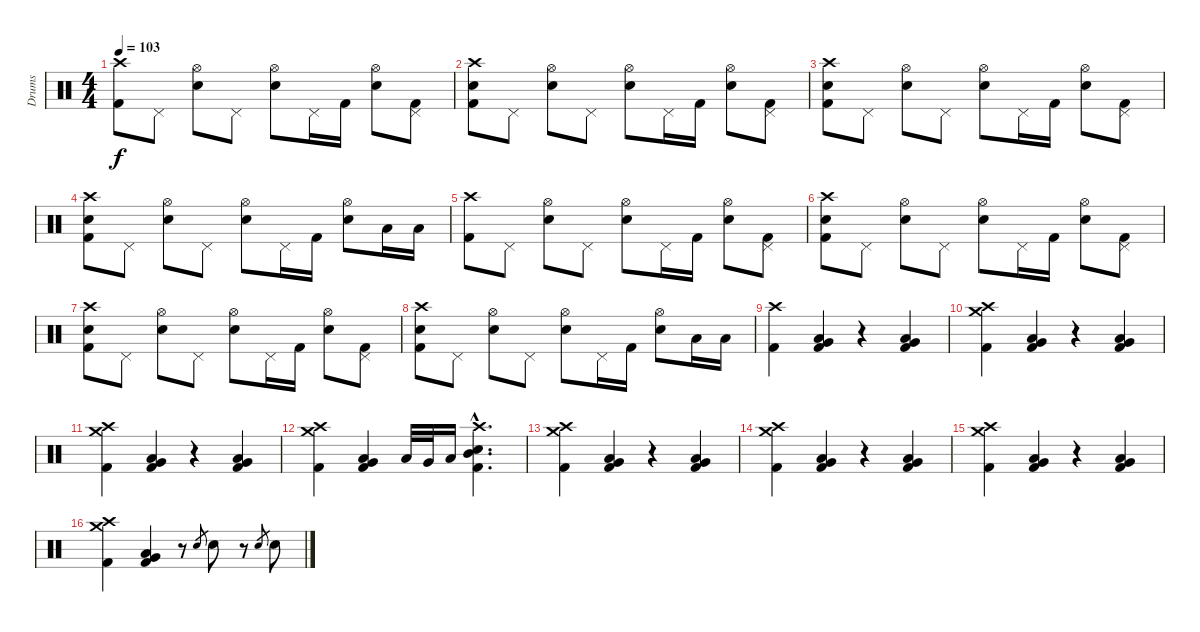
\track ("Drums" "Drums") {instrument percussion}
\staff {score}
\articulation defaults
\ts (4 4)
\tempo 103
\clef neutral
\ks c
("Crash high (hit)" "Kick (hit) 2").8{dy f} "Pedal Hi-Hat (hit)".8 ("Hi-Hat (open)" "Electric Snare (hit)").8 "Pedal Hi-Hat (hit)".8 ("Hi-Hat (open)" "Electric Snare (hit)").8 "Pedal Hi-Hat (hit)".16 "Kick (hit) 2".16 ("Hi-Hat (open)" "Electric Snare (hit)").8 ("Pedal Hi-Hat (hit)" "Kick (hit) 2").8 |
("Crash high (hit)" "Electric Snare (hit)" "Kick (hit) 2").8 "Pedal Hi-Hat (hit)".8 ("Hi-Hat (open)" "Electric Snare (hit)").8 "Pedal Hi-Hat (hit)".8 ("Hi-Hat (open)" "Electric Snare (hit)").8 "Pedal Hi-Hat (hit)".16 "Kick (hit) 2".16 ("Hi-Hat (open)" "Electric Snare (hit)").8 ("Pedal Hi-Hat (hit)" "Kick (hit) 2").8 |
("Crash high (hit)" "Electric Snare (hit)" "Kick (hit) 2").8 "Pedal Hi-Hat (hit)".8 ("Hi-Hat (open)" "Electric Snare (hit)").8 "Pedal Hi-Hat (hit)".8 ("Hi-Hat (open)" "Electric Snare (hit)").8 "Pedal Hi-Hat (hit)".16 "Kick (hit) 2".16 ("Hi-Hat (open)" "Electric Snare (hit)").8 ("Pedal Hi-Hat (hit)" "Kick (hit) 2").8 |
("Crash high (hit)" "Electric Snare (hit)" "Kick (hit) 2").8 "Pedal Hi-Hat (hit)".8 ("Hi-Hat (open)" "Electric Snare (hit)").8 "Pedal Hi-Hat (hit)".8 ("Hi-Hat (open)" "Electric Snare (hit)").8 "Pedal Hi-Hat (hit)".16 "Kick (hit) 2".16 ("Hi-Hat (open)" "Electric Snare (hit)").8 "Low Tom (hit)".16 "Low Tom (hit)".16 |
("Crash high (hit)" "Kick (hit) 2").8 "Pedal Hi-Hat (hit)".8 ("Hi-Hat (open)" "Electric Snare (hit)").8 "Pedal Hi-Hat (hit)".8 ("Hi-Hat (open)" "Electric Snare (hit)").8 "Pedal Hi-Hat (hit)".16 "Kick (hit) 2".16 ("Hi-Hat (open)" "Electric Snare (hit)").8 ("Pedal Hi-Hat (hit)" "Kick (hit) 2").8 |
("Crash high (hit)" "Electric Snare (hit)" "Kick (hit) 2").8 "Pedal Hi-Hat (hit)".8 ("Hi-Hat (open)" "Electric Snare (hit)").8 "Pedal Hi-Hat (hit)".8 ("Hi-Hat (open)" "Electric Snare (hit)").8 "Pedal Hi-Hat (hit)".16 "Kick (hit) 2".16 ("Hi-Hat (open)" "Electric Snare (hit)").8 ("Pedal Hi-Hat (hit)" "Kick (hit) 2").8 |
("Crash high (hit)" "Electric Snare (hit)" "Kick (hit) 2").8 "Pedal Hi-Hat (hit)".8 ("Hi-Hat (open)" "Electric Snare (hit)").8 "Pedal Hi-Hat (hit)".8 ("Hi-Hat (open)" "Electric Snare (hit)").8 "Pedal Hi-Hat (hit)".16 "Kick (hit) 2".16 ("Hi-Hat (open)" "Electric Snare (hit)").8 ("Pedal Hi-Hat (hit)" "Kick (hit) 2").8 |
("Crash high (hit)" "Electric Snare (hit)" "Kick (hit) 2").8 "Pedal Hi-Hat (hit)".8 ("Hi-Hat (open)" "Electric Snare (hit)").8 "Pedal Hi-Hat (hit)".8 ("Hi-Hat (open)" "Electric Snare (hit)").8 "Pedal Hi-Hat (hit)".16 "Kick (hit) 2".16 ("Hi-Hat (open)" "Electric Snare (hit)").8 "Low Tom (hit)".16 "Low Tom (hit)".16 |
("Crash high (hit)" "Kick (hit) 2").4 ("Low Tom (hit)" "Very Low Tom (hit)" "Kick (hit) 2").4 r.4 ("Low Tom (hit)" "Very Low Tom (hit)" "Kick (hit) 2").4 |
("Crash high (hit)" "Crash medium (hit)" "Kick (hit) 2").4 ("Low Tom (hit)" "Very Low Tom (hit)" "Kick (hit) 2").4 r.4 ("Low Tom (hit)" "Very Low Tom (hit)" "Kick (hit) 2").4 |
("Crash high (hit)" "Crash medium (hit)" "Kick (hit) 2").4 ("Low Tom (hit)" "Very Low Tom (hit)" "Kick (hit) 2").4 r.4 ("Low Tom (hit)" "Very Low Tom (hit)" "Kick (hit) 2").4 |
("Crash high (hit)" "Crash medium (hit)" "Kick (hit) 2").4 ("Low Tom (hit)" "Very Low Tom (hit)" "Kick (hit) 2").4 "Low Tom (hit)".32 "Very Low Tom (hit)".32 "Low Tom (hit)".16 ("Crash high (hit)"{hac} "Mid Tom (hit)"{hac} "Electric Snare (hit)"{hac} "Kick (hit) 2"{hac}).4{d} |
("Crash high (hit)" "Crash medium (hit)" "Kick (hit) 2").4 ("Low Tom (hit)" "Very Low Tom (hit)" "Kick (hit) 2").4 r.4 ("Low Tom (hit)" "Very Low Tom (hit)" "Kick (hit) 2").4 |
("Crash high (hit)" "Crash medium (hit)" "Kick (hit) 2").4 ("Low Tom (hit)" "Very Low Tom (hit)" "Kick (hit) 2").4 r.4 ("Low Tom (hit)" "Very Low Tom (hit)" "Kick (hit) 2").4 |
("Crash high (hit)" "Crash medium (hit)" "Kick (hit) 2").4 ("Low Tom (hit)" "Very Low Tom (hit)" "Kick (hit) 2").4 r.4 ("Low Tom (hit)" "Very Low Tom (hit)" "Kick (hit) 2").4 |
("Crash high (hit)" "Crash medium (hit)" "Kick (hit) 2").4 ("Low Tom (hit)" "Very Low Tom (hit)" "Kick (hit) 2").4 r.8 "Electric Snare (hit)".8{gr} "Electric Snare (hit)".8 r.8 "Electric Snare (hit)".8{gr} "Electric Snare (hit)".8
